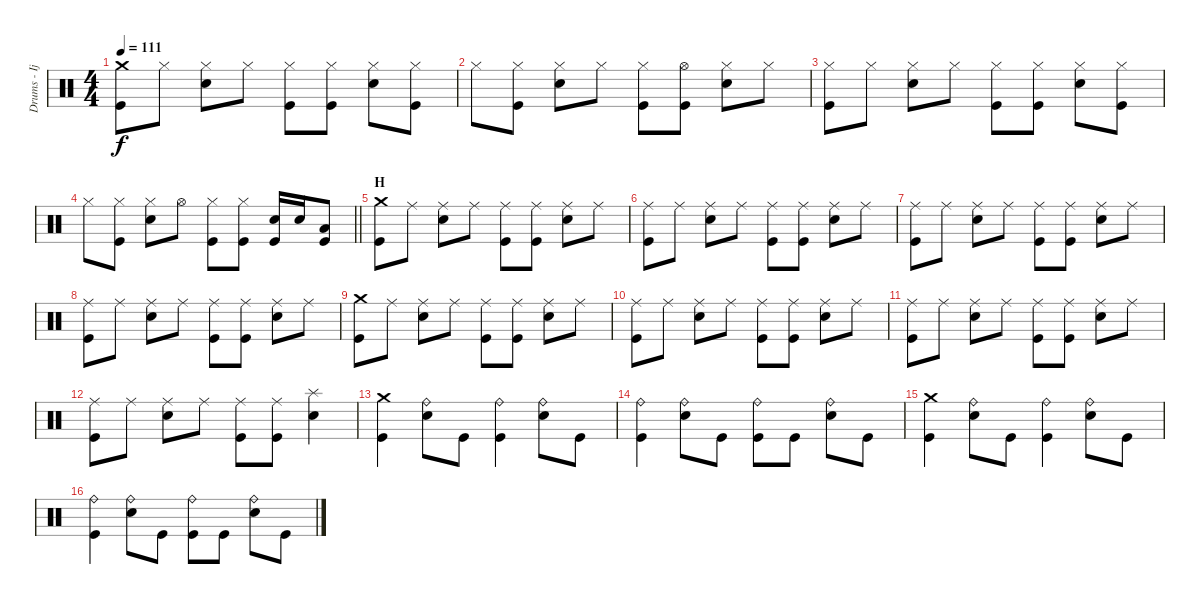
\track ("Drums - Ijichi" "Drums - Ij") {instrument percussion}
\staff {score}
\articulation defaults
\ts (4 4)
\tempo 111
\clef neutral
\ks c
("Crash medium (hit)" "Kick (hit)").8{dy f} "Hi-Hat (closed)".8 ("Hi-Hat (closed)" "Electric Snare (hit)").8 "Hi-Hat (closed)".8 ("Hi-Hat (closed)" "Kick (hit)").8 ("Hi-Hat (closed)" "Kick (hit)").8 ("Hi-Hat (closed)" "Electric Snare (hit)").8 ("Hi-Hat (closed)" "Kick (hit)").8 |
"Hi-Hat (closed)".8 ("Hi-Hat (closed)" "Kick (hit)").8 ("Hi-Hat (closed)" "Electric Snare (hit)").8 "Hi-Hat (closed)".8 ("Hi-Hat (closed)" "Kick (hit)").8 ("Hi-Hat (open)" "Kick (hit)").8 ("Hi-Hat (closed)" "Electric Snare (hit)").8 "Hi-Hat (closed)".8 |
("Hi-Hat (closed)" "Kick (hit)").8 "Hi-Hat (closed)".8 ("Hi-Hat (closed)" "Electric Snare (hit)").8 "Hi-Hat (closed)".8 ("Hi-Hat (closed)" "Kick (hit)").8 ("Hi-Hat (closed)" "Kick (hit)").8 ("Hi-Hat (closed)" "Electric Snare (hit)").8 ("Hi-Hat (closed)" "Kick (hit)").8 |
\barLineRight lightlight "Hi-Hat (closed)".8
("Hi-Hat (closed)" "Kick (hit)").8 ("Hi-Hat (closed)" "Electric Snare (hit)").8 "Hi-Hat (open)".8 ("Hi-Hat (closed)" "Kick (hit)").8 ("Hi-Hat (closed)" "Kick (hit)").8 ("Electric Snare (hit)" "Kick (hit)").16 "Electric Snare (hit)".16 ("Low Tom (hit)" "Kick (hit)").8 |
\section ("" "H")
("Crash medium (hit)" "Kick (hit)").8 "Ride (middle)".8 ("Ride (middle)" "Electric Snare (hit)").8 "Ride (middle)".8 ("Ride (middle)" "Kick (hit)").8 ("Ride (middle)" "Kick (hit)").8 ("Ride (middle)" "Electric Snare (hit)").8 "Ride (middle)".8 |
("Ride (middle)" "Kick (hit)").8 "Ride (middle)".8 ("Ride (middle)" "Electric Snare (hit)").8 "Ride (middle)".8 ("Ride (middle)" "Kick (hit)").8 ("Ride (middle)" "Kick (hit)").8 ("Ride (middle)" "Electric Snare (hit)").8 "Ride (middle)".8 |
("Ride (middle)" "Kick (hit)").8 "Ride (middle)".8 ("Ride (middle)" "Electric Snare (hit)").8 "Ride (middle)".8 ("Ride (middle)" "Kick (hit)").8 ("Ride (middle)" "Kick (hit)").8 ("Ride (middle)" "Electric Snare (hit)").8 "Ride (middle)".8 |
("Ride (middle)" "Kick (hit)").8 "Ride (middle)".8 ("Ride (middle)" "Electric Snare (hit)").8 "Ride (middle)".8 ("Ride (middle)" "Kick (hit)").8 ("Ride (middle)" "Kick (hit)").8 ("Ride (middle)" "Electric Snare (hit)").8 "Ride (middle)".8 |
("Crash medium (hit)" "Kick (hit)").8 "Ride (middle)".8 ("Ride (middle)" "Electric Snare (hit)").8 "Ride (middle)".8 ("Ride (middle)" "Kick (hit)").8 ("Ride (middle)" "Kick (hit)").8 ("Ride (middle)" "Electric Snare (hit)").8 "Ride (middle)".8 |
("Ride (middle)" "Kick (hit)").8 "Ride (middle)".8 ("Ride (middle)" "Electric Snare (hit)").8 "Ride (middle)".8 ("Ride (middle)" "Kick (hit)").8 ("Ride (middle)" "Kick (hit)").8 ("Ride (middle)" "Electric Snare (hit)").8 "Ride (middle)".8 |
("Ride (middle)" "Kick (hit)").8 "Ride (middle)".8 ("Ride (middle)" "Electric Snare (hit)").8 "Ride (middle)".8 ("Ride (middle)" "Kick (hit)").8 ("Ride (middle)" "Kick (hit)").8 ("Ride (middle)" "Electric Snare (hit)").8 "Ride (middle)".8 |
("Ride (middle)" "Kick (hit)").8 "Ride (middle)".8 ("Ride (middle)" "Electric Snare (hit)").8 "Ride (middle)".8 ("Ride (middle)" "Kick (hit)").8 ("Ride (middle)" "Kick (hit)").8 ("Splash (hit)" "Electric Snare (hit)").4 |
("Crash medium (hit)" "Kick (hit)").4 ("Ride (bell)" "Electric Snare (hit)").8 "Kick (hit)".8 ("Ride (bell)" "Kick (hit)").4 ("Ride (bell)" "Electric Snare (hit)").8 "Kick (hit)".8 |
("Ride (bell)" "Kick (hit)").4 ("Ride (bell)" "Electric Snare (hit)").8 "Kick (hit)".8 ("Ride (bell)" "Kick (hit)").8 "Kick (hit)".8 ("Ride (bell)" "Electric Snare (hit)").8 "Kick (hit)".8 |
("Crash medium (hit)" "Kick (hit)").4 ("Ride (bell)" "Electric Snare (hit)").8 "Kick (hit)".8 ("Ride (bell)" "Kick (hit)").4 ("Ride (bell)" "Electric Snare (hit)").8 "Kick (hit)".8 |
("Ride (bell)" "Kick (hit)").4 ("Ride (bell)" "Electric Snare (hit)").8 "Kick (hit)".8 ("Ride (bell)" "Kick (hit)").8 "Kick (hit)".8 ("Ride (bell)" "Electric Snare (hit)").8 "Kick (hit)".8
